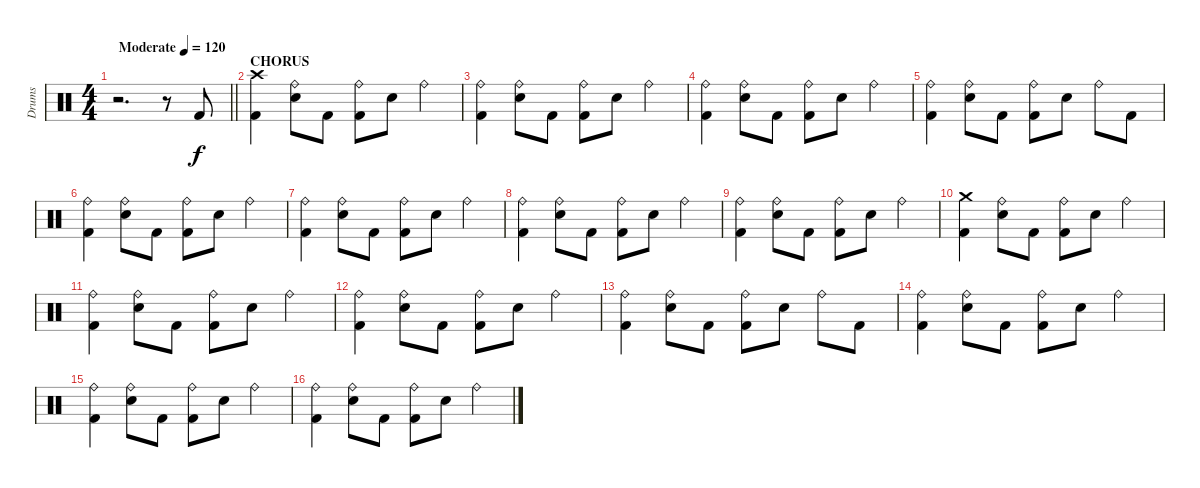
\track ("Drums" "Drums") {instrument percussion}
\staff
\articulation defaults
\ts (4 4)
\tempo (120 "Moderate")
\clef neutral
\barLineRight lightlight
\ks c
r.2{d dy f} r.8 "Kick (hit) 2".8 |
\section ("" "CHORUS")
("Crash high (hit)" "Kick (hit) 2").4 ("Ride (bell)" "Electric Snare (hit)").8 "Kick (hit) 2".8 ("Ride (bell)" "Kick (hit) 2").8 "Electric Snare (hit)".8 "Ride (bell)".4 |
("Ride (bell)" "Kick (hit) 2").4 ("Ride (bell)" "Electric Snare (hit)").8 "Kick (hit) 2".8 ("Ride (bell)" "Kick (hit) 2").8 "Electric Snare (hit)".8 "Ride (bell)".4 |
("Ride (bell)" "Kick (hit) 2").4 ("Ride (bell)" "Electric Snare (hit)").8 "Kick (hit) 2".8 ("Ride (bell)" "Kick (hit) 2").8 "Electric Snare (hit)".8 "Ride (bell)".4 |
("Ride (bell)" "Kick (hit) 2").4 ("Ride (bell)" "Electric Snare (hit)").8 "Kick (hit) 2".8 ("Ride (bell)" "Kick (hit) 2").8 "Electric Snare (hit)".8 "Ride (bell)".8 "Kick (hit) 2".8 |
("Ride (bell)" "Kick (hit) 2").4 ("Ride (bell)" "Electric Snare (hit)").8 "Kick (hit) 2".8 ("Ride (bell)" "Kick (hit) 2").8 "Electric Snare (hit)".8 "Ride (bell)".4 |
("Ride (bell)" "Kick (hit) 2").4 ("Ride (bell)" "Electric Snare (hit)").8 "Kick (hit) 2".8 ("Ride (bell)" "Kick (hit) 2").8 "Electric Snare (hit)".8 "Ride (bell)".4 |
("Ride (bell)" "Kick (hit) 2").4 ("Ride (bell)" "Electric Snare (hit)").8 "Kick (hit) 2".8 ("Ride (bell)" "Kick (hit) 2").8 "Electric Snare (hit)".8 "Ride (bell)".4 |
("Ride (bell)" "Kick (hit) 2").4 ("Ride (bell)" "Electric Snare (hit)").8 "Kick (hit) 2".8 ("Ride (bell)" "Kick (hit) 2").8 "Electric Snare (hit)".8 "Ride (bell)".4 |
("Crash medium (hit)" "Kick (hit) 2").4 ("Ride (bell)" "Electric Snare (hit)").8 "Kick (hit) 2".8 ("Ride (bell)" "Kick (hit) 2").8 "Electric Snare (hit)".8 "Ride (bell)".4 |
("Ride (bell)" "Kick (hit) 2").4 ("Ride (bell)" "Electric Snare (hit)").8 "Kick (hit) 2".8 ("Ride (bell)" "Kick (hit) 2").8 "Electric Snare (hit)".8 "Ride (bell)".4 |
("Ride (bell)" "Kick (hit) 2").4 ("Ride (bell)" "Electric Snare (hit)").8 "Kick (hit) 2".8 ("Ride (bell)" "Kick (hit) 2").8 "Electric Snare (hit)".8 "Ride (bell)".4 |
("Ride (bell)" "Kick (hit) 2").4 ("Ride (bell)" "Electric Snare (hit)").8 "Kick (hit) 2".8 ("Ride (bell)" "Kick (hit) 2").8 "Electric Snare (hit)".8 "Ride (bell)".8 "Kick (hit) 2".8 |
("Ride (bell)" "Kick (hit) 2").4 ("Ride (bell)" "Electric Snare (hit)").8 "Kick (hit) 2".8 ("Ride (bell)" "Kick (hit) 2").8 "Electric Snare (hit)".8 "Ride (bell)".4 |
("Ride (bell)" "Kick (hit) 2").4 ("Ride (bell)" "Electric Snare (hit)").8 "Kick (hit) 2".8 ("Ride (bell)" "Kick (hit) 2").8 "Electric Snare (hit)".8 "Ride (bell)".4 |
("Ride (bell)" "Kick (hit) 2").4 ("Ride (bell)" "Electric Snare (hit)").8 "Kick (hit) 2".8 ("Ride (bell)" "Kick (hit) 2").8 "Electric Snare (hit)".8 "Ride (bell)".4
